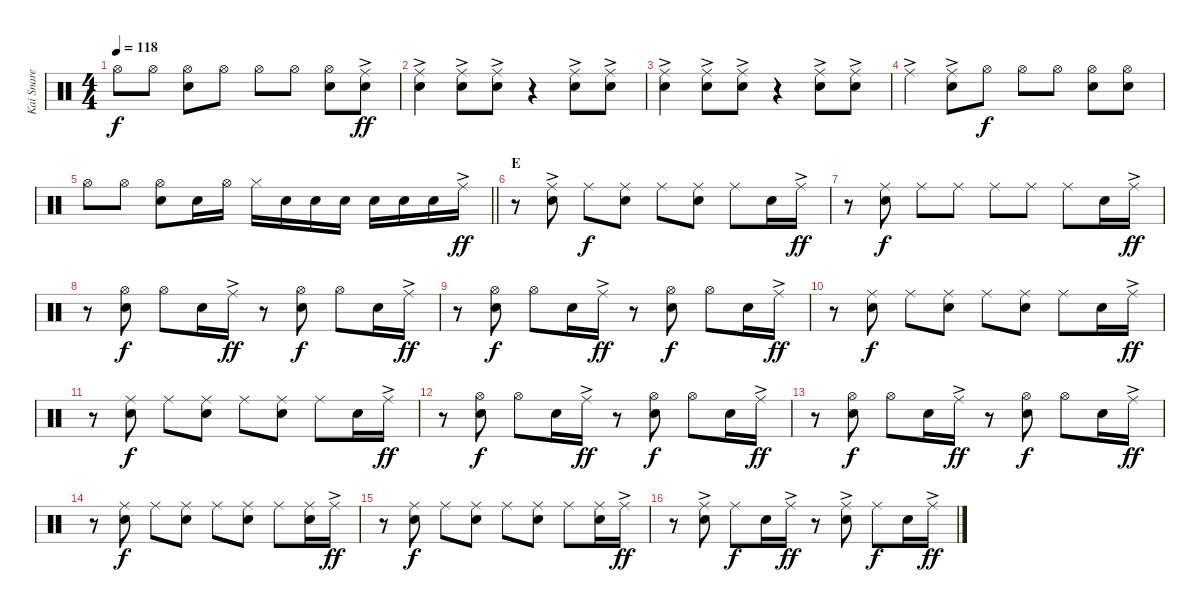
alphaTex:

\track ("Kai Snare" "Kai Snare") {instrument percussion}
\staff {score}
\articulation defaults
\ts (4 4)
\tempo 118
\clef neutral
\ks c "Hi-Hat (open)".8{dy f} "Hi-Hat (open)".8
("Hi-Hat (open)" "Snare (hit) 2").8 "Hi-Hat (open)".8 "Hi-Hat (open)".8 "Hi-Hat (open)".8 ("Hi-Hat (open)" "Snare (hit) 2").8 ("Ride (middle)"{ac} "Snare (hit) 2").8{dy ff} |
("Ride (middle)"{ac} "Snare (hit) 2").4 ("Ride (middle)"{ac} "Snare (hit) 2").8 ("Ride (middle)"{ac} "Snare (hit) 2").8 r.4 ("Ride (middle)"{ac} "Snare (hit) 2").8 ("Ride (middle)"{ac} "Snare (hit) 2").8 |
("Ride (middle)"{ac} "Snare (hit) 2").4 ("Ride (middle)"{ac} "Snare (hit) 2").8 ("Ride (middle)"{ac} "Snare (hit) 2").8 r.4 ("Ride (middle)"{ac} "Snare (hit) 2").8 ("Ride (middle)"{ac} "Snare (hit) 2").8 |
"Ride (middle)"{ac}.4 ("Ride (middle)"{ac} "Snare (hit) 2").8 "Hi-Hat (open)".8{dy f} "Hi-Hat (open)".8 "Hi-Hat (open)".8 ("Hi-Hat (open)" "Snare (hit) 2").8 ("Hi-Hat (open)" "Snare (hit) 2").8 |
\barLineRight lightlight "Hi-Hat (open)".8 "Hi-Hat (open)".8
("Hi-Hat (open)" "Snare (hit) 2").8 "Snare (hit) 2".16 "Hi-Hat (open)".16 "Hi-Hat (closed)".16 "Snare (hit) 2".16 "Snare (hit) 2".16 "Snare (hit) 2".16 "Snare (hit) 2".16 "Snare (hit) 2".16 "Snare (hit) 2".16 "Ride (middle)"{ac}.16{dy ff} |
\section ("" "E")
r.8 ("Ride (middle)"{ac} "Snare (hit) 2").8 "Ride (middle)".8{dy f} ("Ride (middle)" "Snare (hit) 2").8 "Ride (middle)".8 ("Ride (middle)" "Snare (hit) 2").8 "Ride (middle)".8 "Snare (hit) 2".16 "Ride (middle)"{ac}.16{dy ff} |
r.8 ("Ride (middle)" "Snare (hit) 2").8{dy f} "Ride (middle)".8 "Ride (middle)".8 "Ride (middle)".8 "Ride (middle)".8 "Ride (middle)".8 "Snare (hit) 2".16 "Ride (middle)"{ac}.16{dy ff} |
r.8 ("Hi-Hat (open)" "Snare (hit) 2").8{dy f} "Hi-Hat (open)".8 "Snare (hit) 2".16 "Ride (middle)"{ac}.16{dy ff} r.8 ("Hi-Hat (open)" "Snare (hit) 2").8{dy f} "Hi-Hat (open)".8 "Snare (hit) 2".16 "Ride (middle)"{ac}.16{dy ff} |
r.8 ("Hi-Hat (open)" "Snare (hit) 2").8{dy f} "Hi-Hat (open)".8 "Snare (hit) 2".16 "Ride (middle)"{ac}.16{dy ff} r.8 ("Hi-Hat (open)" "Snare (hit) 2").8{dy f} "Hi-Hat (open)".8 "Snare (hit) 2".16 "Ride (middle)"{ac}.16{dy ff} |
r.8 ("Ride (middle)" "Snare (hit) 2").8{dy f} "Ride (middle)".8 ("Ride (middle)" "Snare (hit) 2").8 "Ride (middle)".8 ("Ride (middle)" "Snare (hit) 2").8 "Ride (middle)".8 "Snare (hit) 2".16 "Ride (middle)"{ac}.16{dy ff} |
r.8 ("Ride (middle)" "Snare (hit) 2").8{dy f} "Ride (middle)".8 ("Ride (middle)" "Snare (hit) 2").8 "Ride (middle)".8 ("Ride (middle)" "Snare (hit) 2").8 "Ride (middle)".8 "Snare (hit) 2".16 "Ride (middle)"{ac}.16{dy ff} |
r.8 ("Hi-Hat (open)" "Snare (hit) 2").8{dy f} "Hi-Hat (open)".8 "Snare (hit) 2".16 "Ride (middle)"{ac}.16{dy ff} r.8 ("Hi-Hat (open)" "Snare (hit) 2").8{dy f} "Hi-Hat (open)".8 "Snare (hit) 2".16 "Ride (middle)"{ac}.16{dy ff} |
r.8 ("Hi-Hat (open)" "Snare (hit) 2").8{dy f} "Hi-Hat (open)".8 "Snare (hit) 2".16 "Ride (middle)"{ac}.16{dy ff} r.8 ("Hi-Hat (open)" "Snare (hit) 2").8{dy f} "Hi-Hat (open)".8 "Snare (hit) 2".16 "Ride (middle)"{ac}.16{dy ff} |
r.8 ("Ride (middle)" "Snare (hit) 2").8{dy f} "Ride (middle)".8 ("Ride (middle)" "Snare (hit) 2").8 "Ride (middle)".8 ("Ride (middle)" "Snare (hit) 2").8 "Ride (middle)".8 ("Ride (middle)" "Snare (hit) 2").16 "Ride (middle)"{ac}.16{dy ff} |
r.8 ("Ride (middle)" "Snare (hit) 2").8{dy f} "Ride (middle)".8 ("Ride (middle)" "Snare (hit) 2").8 "Ride (middle)".8 ("Ride (middle)" "Snare (hit) 2").8 "Ride (middle)".8 ("Ride (middle)" "Snare (hit) 2").16 "Ride (middle)"{ac}.16{dy ff} |
r.8 ("Ride (middle)"{ac} "Snare (hit) 2").8 "Ride (middle)".8{dy f} "Snare (hit) 2".16 "Ride (middle)"{ac}.16{dy ff} r.8 ("Ride (middle)"{ac} "Snare (hit) 2").8 "Ride (middle)".8{dy f} "Snare (hit) 2".16 "Ride (middle)"{ac}.16{dy ff}
